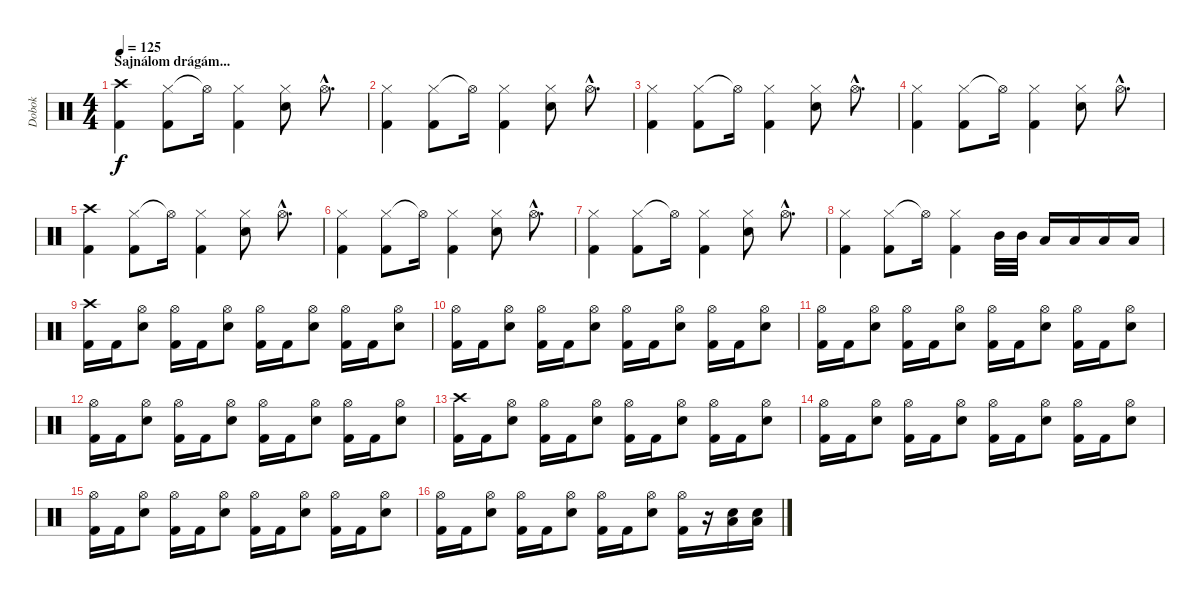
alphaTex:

\track ("Dobok" "Dobok") {instrument percussion}
\staff {score}
\articulation defaults
\ts (4 4)
\section ("" "Sajnálom drágám...")
\tempo 125
\clef neutral
\ks c
("Crash high (hit)" "Kick (hit) 2").4{dy f} ("Hi-Hat (closed)" "Kick (hit) 2").8 "Hi-Hat (open)"{t}.16 ("Hi-Hat (closed)" "Kick (hit) 2").4 ("Hi-Hat (closed)" "Snare (hit) 2").8 "Hi-Hat (open)"{hac}.8{d} |
("Hi-Hat (closed)" "Kick (hit) 2").4 ("Hi-Hat (closed)" "Kick (hit) 2").8 "Hi-Hat (open)"{t}.16 ("Hi-Hat (closed)" "Kick (hit) 2").4 ("Hi-Hat (closed)" "Snare (hit) 2").8 "Hi-Hat (open)"{hac}.8{d} |
("Hi-Hat (closed)" "Kick (hit) 2").4 ("Hi-Hat (closed)" "Kick (hit) 2").8 "Hi-Hat (open)"{t}.16 ("Hi-Hat (closed)" "Kick (hit) 2").4 ("Hi-Hat (closed)" "Snare (hit) 2").8 "Hi-Hat (open)"{hac}.8{d} |
("Hi-Hat (closed)" "Kick (hit) 2").4 ("Hi-Hat (closed)" "Kick (hit) 2").8 "Hi-Hat (open)"{t}.16 ("Hi-Hat (closed)" "Kick (hit) 2").4 ("Hi-Hat (closed)" "Snare (hit) 2").8 "Hi-Hat (open)"{hac}.8{d} |
("Crash high (hit)" "Kick (hit) 2").4 ("Hi-Hat (closed)" "Kick (hit) 2").8 "Hi-Hat (open)"{t}.16 ("Hi-Hat (closed)" "Kick (hit) 2").4 ("Hi-Hat (closed)" "Snare (hit) 2").8 "Hi-Hat (open)"{hac}.8{d} |
("Hi-Hat (closed)" "Kick (hit) 2").4 ("Hi-Hat (closed)" "Kick (hit) 2").8 "Hi-Hat (open)"{t}.16 ("Hi-Hat (closed)" "Kick (hit) 2").4 ("Hi-Hat (closed)" "Snare (hit) 2").8 "Hi-Hat (open)"{hac}.8{d} |
("Hi-Hat (closed)" "Kick (hit) 2").4 ("Hi-Hat (closed)" "Kick (hit) 2").8 "Hi-Hat (open)"{t}.16 ("Hi-Hat (closed)" "Kick (hit) 2").4 ("Hi-Hat (closed)" "Snare (hit) 2").8 "Hi-Hat (open)"{hac}.8{d} |
("Hi-Hat (closed)" "Kick (hit) 2").4 ("Hi-Hat (closed)" "Kick (hit) 2").8 "Hi-Hat (open)"{t}.16 ("Hi-Hat (closed)" "Kick (hit) 2").4 "Mid Tom (hit)".32 "Mid Tom (hit)".32 "Low Tom (hit)".16 "Low Tom (hit)".16 "Low Tom (hit)".16 "Low Tom (hit)".16 |
("Crash high (hit)" "Kick (hit) 2").16 "Kick (hit) 2".16 ("Hi-Hat (open)" "Snare (hit) 2").8 ("Hi-Hat (open)" "Kick (hit) 2").16 "Kick (hit) 2".16 ("Hi-Hat (open)" "Snare (hit) 2").8 ("Hi-Hat (open)" "Kick (hit) 2").16 "Kick (hit) 2".16 ("Hi-Hat (open)" "Snare (hit) 2").8 ("Hi-Hat (open)" "Kick (hit) 2").16 "Kick (hit) 2".16 ("Hi-Hat (open)" "Snare (hit) 2").8 |
("Hi-Hat (open)" "Kick (hit) 2").16 "Kick (hit) 2".16 ("Hi-Hat (open)" "Snare (hit) 2").8 ("Hi-Hat (open)" "Kick (hit) 2").16 "Kick (hit) 2".16 ("Hi-Hat (open)" "Snare (hit) 2").8 ("Hi-Hat (open)" "Kick (hit) 2").16 "Kick (hit) 2".16 ("Hi-Hat (open)" "Snare (hit) 2").8 ("Hi-Hat (open)" "Kick (hit) 2").16 "Kick (hit) 2".16 ("Hi-Hat (open)" "Snare (hit) 2").8 |
("Hi-Hat (open)" "Kick (hit) 2").16 "Kick (hit) 2".16 ("Hi-Hat (open)" "Snare (hit) 2").8 ("Hi-Hat (open)" "Kick (hit) 2").16 "Kick (hit) 2".16 ("Hi-Hat (open)" "Snare (hit) 2").8 ("Hi-Hat (open)" "Kick (hit) 2").16 "Kick (hit) 2".16 ("Hi-Hat (open)" "Snare (hit) 2").8 ("Hi-Hat (open)" "Kick (hit) 2").16 "Kick (hit) 2".16 ("Hi-Hat (open)" "Snare (hit) 2").8 |
("Hi-Hat (open)" "Kick (hit) 2").16 "Kick (hit) 2".16 ("Hi-Hat (open)" "Snare (hit) 2").8 ("Hi-Hat (open)" "Kick (hit) 2").16 "Kick (hit) 2".16 ("Hi-Hat (open)" "Snare (hit) 2").8 ("Hi-Hat (open)" "Kick (hit) 2").16 "Kick (hit) 2".16 ("Hi-Hat (open)" "Snare (hit) 2").8 ("Hi-Hat (open)" "Kick (hit) 2").16 "Kick (hit) 2".16 ("Hi-Hat (open)" "Snare (hit) 2").8 |
("Crash high (hit)" "Kick (hit) 2").16 "Kick (hit) 2".16 ("Hi-Hat (open)" "Snare (hit) 2").8 ("Hi-Hat (open)" "Kick (hit) 2").16 "Kick (hit) 2".16 ("Hi-Hat (open)" "Snare (hit) 2").8 ("Hi-Hat (open)" "Kick (hit) 2").16 "Kick (hit) 2".16 ("Hi-Hat (open)" "Snare (hit) 2").8 ("Hi-Hat (open)" "Kick (hit) 2").16 "Kick (hit) 2".16 ("Hi-Hat (open)" "Snare (hit) 2").8 |
("Hi-Hat (open)" "Kick (hit) 2").16 "Kick (hit) 2".16 ("Hi-Hat (open)" "Snare (hit) 2").8 ("Hi-Hat (open)" "Kick (hit) 2").16 "Kick (hit) 2".16 ("Hi-Hat (open)" "Snare (hit) 2").8 ("Hi-Hat (open)" "Kick (hit) 2").16 "Kick (hit) 2".16 ("Hi-Hat (open)" "Snare (hit) 2").8 ("Hi-Hat (open)" "Kick (hit) 2").16 "Kick (hit) 2".16 ("Hi-Hat (open)" "Snare (hit) 2").8 |
("Hi-Hat (open)" "Kick (hit) 2").16 "Kick (hit) 2".16 ("Hi-Hat (open)" "Snare (hit) 2").8 ("Hi-Hat (open)" "Kick (hit) 2").16 "Kick (hit) 2".16 ("Hi-Hat (open)" "Snare (hit) 2").8 ("Hi-Hat (open)" "Kick (hit) 2").16 "Kick (hit) 2".16 ("Hi-Hat (open)" "Snare (hit) 2").8 ("Hi-Hat (open)" "Kick (hit) 2").16 "Kick (hit) 2".16 ("Hi-Hat (open)" "Snare (hit) 2").8 |
("Hi-Hat (open)" "Kick (hit) 2").16 "Kick (hit) 2".16 ("Hi-Hat (open)" "Snare (hit) 2").8 ("Hi-Hat (open)" "Kick (hit) 2").16 "Kick (hit) 2".16 ("Hi-Hat (open)" "Snare (hit) 2").8 ("Hi-Hat (open)" "Kick (hit) 2").16 "Kick (hit) 2".16 ("Hi-Hat (open)" "Snare (hit) 2").8 ("Hi-Hat (open)" "Kick (hit) 2").16 r.16 ("Snare (hit) 2" "Low Tom (hit)").16 ("Snare (hit) 2" "Low Tom (hit)").16
